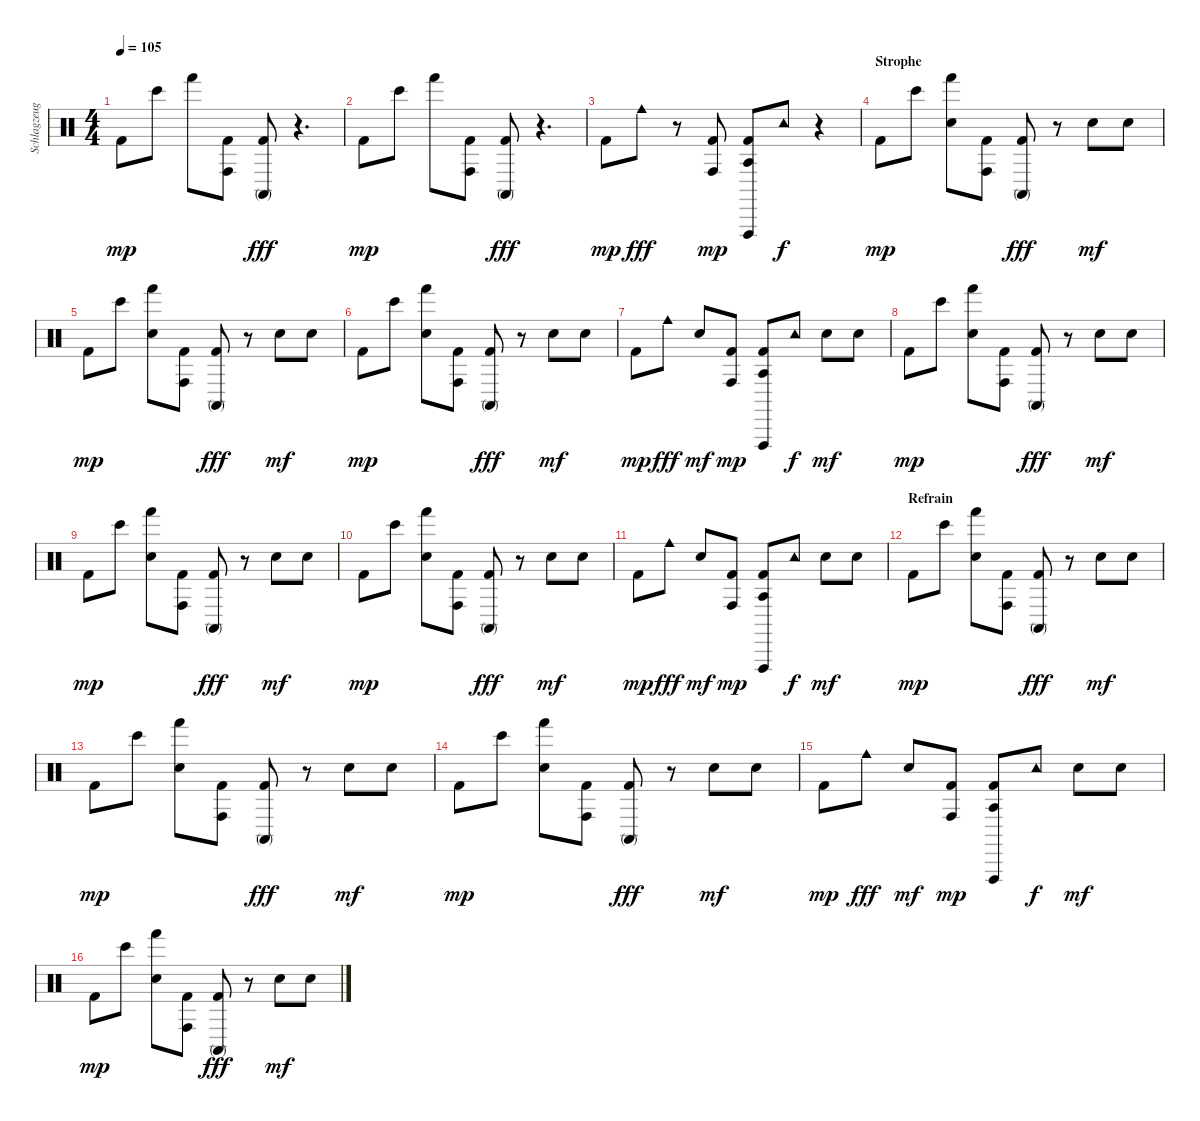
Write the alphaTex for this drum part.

\track ("Schlagzeug" "Schlagzeug") {instrument percussion}
\staff {score}
\articulation defaults
\ts (4 4)
\tempo 105
\clef neutral
\ks c "Kick (hit) 2".8{dy mp} "Bongo High (hit)".8 "Hand (hit)".8
("Kick (hit) 2" "Conga high (hit)").8 ("Kick (hit) 2" "Conga high (mute)").8{dy fff} r.4{d} |
"Kick (hit) 2".8{dy mp} "Bongo High (hit)".8 "Hand (hit)".8 ("Kick (hit) 2" "Conga high (hit)").8 ("Kick (hit) 2" "Conga high (mute)").8{dy fff} r.4{d} |
"Kick (hit) 2".8{dy mp} "Cowbell medium (hit)".8{dy fff} r.8 ("Kick (hit) 2" "Conga high (hit)").8{dy mp} ("Agogo tow (hit)" "Vibraslap (hit)" "Kick (hit) 2").8 "Tambourine (hit)".8{dy f} r.4 |
\section ("" "Strophe")
"Kick (hit) 2".8{dy mp} "Bongo High (hit)".8 ("Hand Clap (hit)" "Hand (hit)").8 ("Kick (hit) 2" "Conga high (hit)").8 ("Kick (hit) 2" "Conga high (mute)").8{dy fff} r.8 "Hand Clap (hit)".8{dy mf} "Hand Clap (hit)".8 |
"Kick (hit) 2".8{dy mp} "Bongo High (hit)".8 ("Hand Clap (hit)" "Hand (hit)").8 ("Kick (hit) 2" "Conga high (hit)").8 ("Kick (hit) 2" "Conga high (mute)").8{dy fff} r.8 "Hand Clap (hit)".8{dy mf} "Hand Clap (hit)".8 |
"Kick (hit) 2".8{dy mp} "Bongo High (hit)".8 ("Hand Clap (hit)" "Hand (hit)").8 ("Kick (hit) 2" "Conga high (hit)").8 ("Kick (hit) 2" "Conga high (mute)").8{dy fff} r.8 "Hand Clap (hit)".8{dy mf} "Hand Clap (hit)".8 |
"Kick (hit) 2".8{dy mp} "Cowbell medium (hit)".8{dy fff} "Hand Clap (hit)".8{dy mf} ("Kick (hit) 2" "Conga high (hit)").8{dy mp} ("Agogo tow (hit)" "Kick (hit) 2" "Vibraslap (hit)").8 "Tambourine (hit)".8{dy f} "Hand Clap (hit)".8{dy mf} "Hand Clap (hit)".8 |
"Kick (hit) 2".8{dy mp} "Bongo High (hit)".8 ("Hand Clap (hit)" "Hand (hit)").8 ("Kick (hit) 2" "Conga high (hit)").8 ("Kick (hit) 2" "Conga high (mute)").8{dy fff} r.8 "Hand Clap (hit)".8{dy mf} "Hand Clap (hit)".8 |
"Kick (hit) 2".8{dy mp} "Bongo High (hit)".8 ("Hand Clap (hit)" "Hand (hit)").8 ("Kick (hit) 2" "Conga high (hit)").8 ("Kick (hit) 2" "Conga high (mute)").8{dy fff} r.8 "Hand Clap (hit)".8{dy mf} "Hand Clap (hit)".8 |
"Kick (hit) 2".8{dy mp} "Bongo High (hit)".8 ("Hand Clap (hit)" "Hand (hit)").8 ("Kick (hit) 2" "Conga high (hit)").8 ("Kick (hit) 2" "Conga high (mute)").8{dy fff} r.8 "Hand Clap (hit)".8{dy mf} "Hand Clap (hit)".8 |
"Kick (hit) 2".8{dy mp} "Cowbell medium (hit)".8{dy fff} "Hand Clap (hit)".8{dy mf} ("Kick (hit) 2" "Conga high (hit)").8{dy mp} ("Agogo tow (hit)" "Kick (hit) 2" "Vibraslap (hit)").8 "Tambourine (hit)".8{dy f} "Hand Clap (hit)".8{dy mf} "Hand Clap (hit)".8 |
\section ("" "Refrain")
"Kick (hit) 2".8{dy mp} "Bongo High (hit)".8 ("Hand Clap (hit)" "Hand (hit)").8 ("Kick (hit) 2" "Conga high (hit)").8 ("Kick (hit) 2" "Conga high (mute)").8{dy fff} r.8 "Hand Clap (hit)".8{dy mf} "Hand Clap (hit)".8 |
"Kick (hit) 2".8{dy mp} "Bongo High (hit)".8 ("Hand Clap (hit)" "Hand (hit)").8 ("Kick (hit) 2" "Conga high (hit)").8 ("Kick (hit) 2" "Conga high (mute)").8{dy fff} r.8 "Hand Clap (hit)".8{dy mf} "Hand Clap (hit)".8 |
"Kick (hit) 2".8{dy mp} "Bongo High (hit)".8 ("Hand Clap (hit)" "Hand (hit)").8 ("Kick (hit) 2" "Conga high (hit)").8 ("Kick (hit) 2" "Conga high (mute)").8{dy fff} r.8 "Hand Clap (hit)".8{dy mf} "Hand Clap (hit)".8 |
"Kick (hit) 2".8{dy mp} "Cowbell medium (hit)".8{dy fff} "Hand Clap (hit)".8{dy mf} ("Kick (hit) 2" "Conga high (hit)").8{dy mp} ("Agogo tow (hit)" "Kick (hit) 2" "Vibraslap (hit)").8 "Tambourine (hit)".8{dy f} "Hand Clap (hit)".8{dy mf} "Hand Clap (hit)".8 |
"Kick (hit) 2".8{dy mp} "Bongo High (hit)".8 ("Hand Clap (hit)" "Hand (hit)").8 ("Kick (hit) 2" "Conga high (hit)").8 ("Kick (hit) 2" "Conga high (mute)").8{dy fff} r.8 "Hand Clap (hit)".8{dy mf} "Hand Clap (hit)".8
